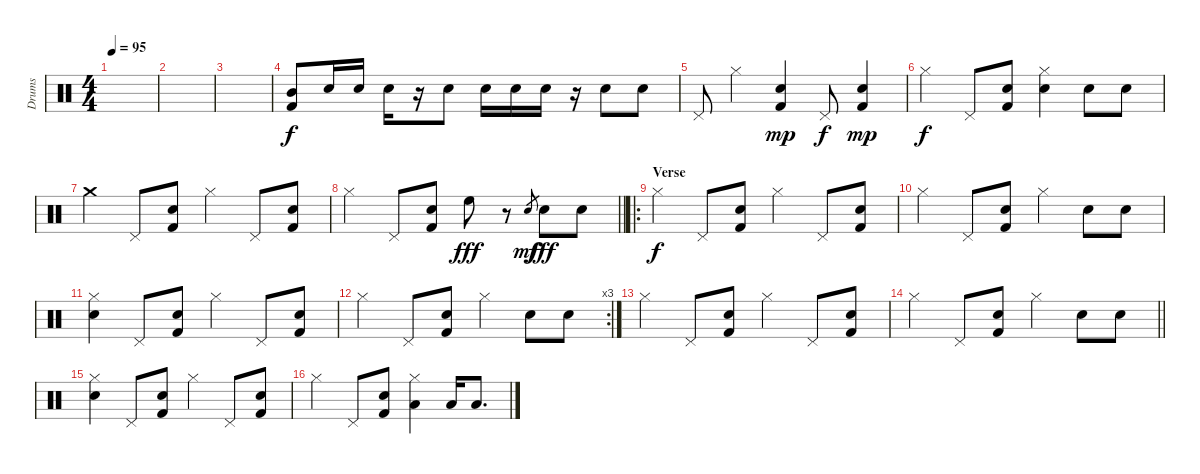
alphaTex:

\track ("Drums" "Drums") {instrument percussion}
\staff {score}
\articulation defaults
\ts (4 4)
\tempo 95
\clef neutral
\ks c
|
|
|
("Mid Tom (hit)" "Kick (hit) 2").8 "Snare (hit) 2".16 "Snare (hit) 2".16 "Snare (hit) 2".16 r.16 "Snare (hit) 2".8 "Snare (hit) 2".16 "Snare (hit) 2".16 "Snare (hit) 2".16 r.16 "Snare (hit) 2".8 "Snare (hit) 2".8 |
"Pedal Hi-Hat (hit)".8 "Hi-Hat (closed)".4 ("Snare (hit) 2" "Kick (hit) 2").4{dy mp} "Pedal Hi-Hat (hit)".8{dy f} ("Snare (hit) 2" "Kick (hit) 2").4{dy mp} |
"Hi-Hat (closed)".4{dy f} "Pedal Hi-Hat (hit)".8 ("Snare (hit) 2" "Kick (hit) 2").8 ("Hi-Hat (closed)" "Snare (hit) 2").4 "Snare (hit) 2".8 "Snare (hit) 2".8 |
"Crash medium (hit)".4 "Pedal Hi-Hat (hit)".8 ("Snare (hit) 2" "Kick (hit) 2").8 "Hi-Hat (closed)".4 "Pedal Hi-Hat (hit)".8 ("Snare (hit) 2" "Kick (hit) 2").8 |
\barLineRight lightlight "Hi-Hat (closed)".4 "Pedal Hi-Hat (hit)".8
("Snare (hit) 2" "Kick (hit) 2").8 "High Floor Tom (hit)".8{dy fff} r.8 "Snare (hit) 2".8{gr dy mf} "Snare (hit) 2".8{dy fff} "Snare (hit) 2".8 |
\ro
\section ("" "Verse")
"Hi-Hat (closed)".4{dy f} "Pedal Hi-Hat (hit)".8 ("Snare (hit) 2" "Kick (hit) 2").8 "Hi-Hat (closed)".4 "Pedal Hi-Hat (hit)".8 ("Snare (hit) 2" "Kick (hit) 2").8 |
"Hi-Hat (closed)".4 "Pedal Hi-Hat (hit)".8 ("Snare (hit) 2" "Kick (hit) 2").8 "Hi-Hat (closed)".4 "Snare (hit) 2".8 "Snare (hit) 2".8 |
("Hi-Hat (closed)" "Snare (hit) 2").4 "Pedal Hi-Hat (hit)".8 ("Snare (hit) 2" "Kick (hit) 2").8 "Hi-Hat (closed)".4 "Pedal Hi-Hat (hit)".8 ("Snare (hit) 2" "Kick (hit) 2").8 |
\rc 3 "Hi-Hat (closed)".4 "Pedal Hi-Hat (hit)".8
("Snare (hit) 2" "Kick (hit) 2").8 "Hi-Hat (closed)".4 "Snare (hit) 2".8 "Snare (hit) 2".8 |
"Hi-Hat (closed)".4 "Pedal Hi-Hat (hit)".8 ("Snare (hit) 2" "Kick (hit) 2").8 "Hi-Hat (closed)".4 "Pedal Hi-Hat (hit)".8 ("Snare (hit) 2" "Kick (hit) 2").8 |
\barLineRight lightlight "Hi-Hat (closed)".4 "Pedal Hi-Hat (hit)".8
("Snare (hit) 2" "Kick (hit) 2").8 "Hi-Hat (closed)".4 "Snare (hit) 2".8 "Snare (hit) 2".8 |
("Hi-Hat (closed)" "Snare (hit) 2").4 "Pedal Hi-Hat (hit)".8 ("Snare (hit) 2" "Kick (hit) 2").8 "Hi-Hat (closed)".4 "Pedal Hi-Hat (hit)".8 ("Snare (hit) 2" "Kick (hit) 2").8 |
"Hi-Hat (closed)".4 "Pedal Hi-Hat (hit)".8 ("Snare (hit) 2" "Kick (hit) 2").8 ("Hi-Hat (closed)" "Low Floor Tom (hit)").4 "Low Floor Tom (hit)".16 "Low Floor Tom (hit)".8{d}
